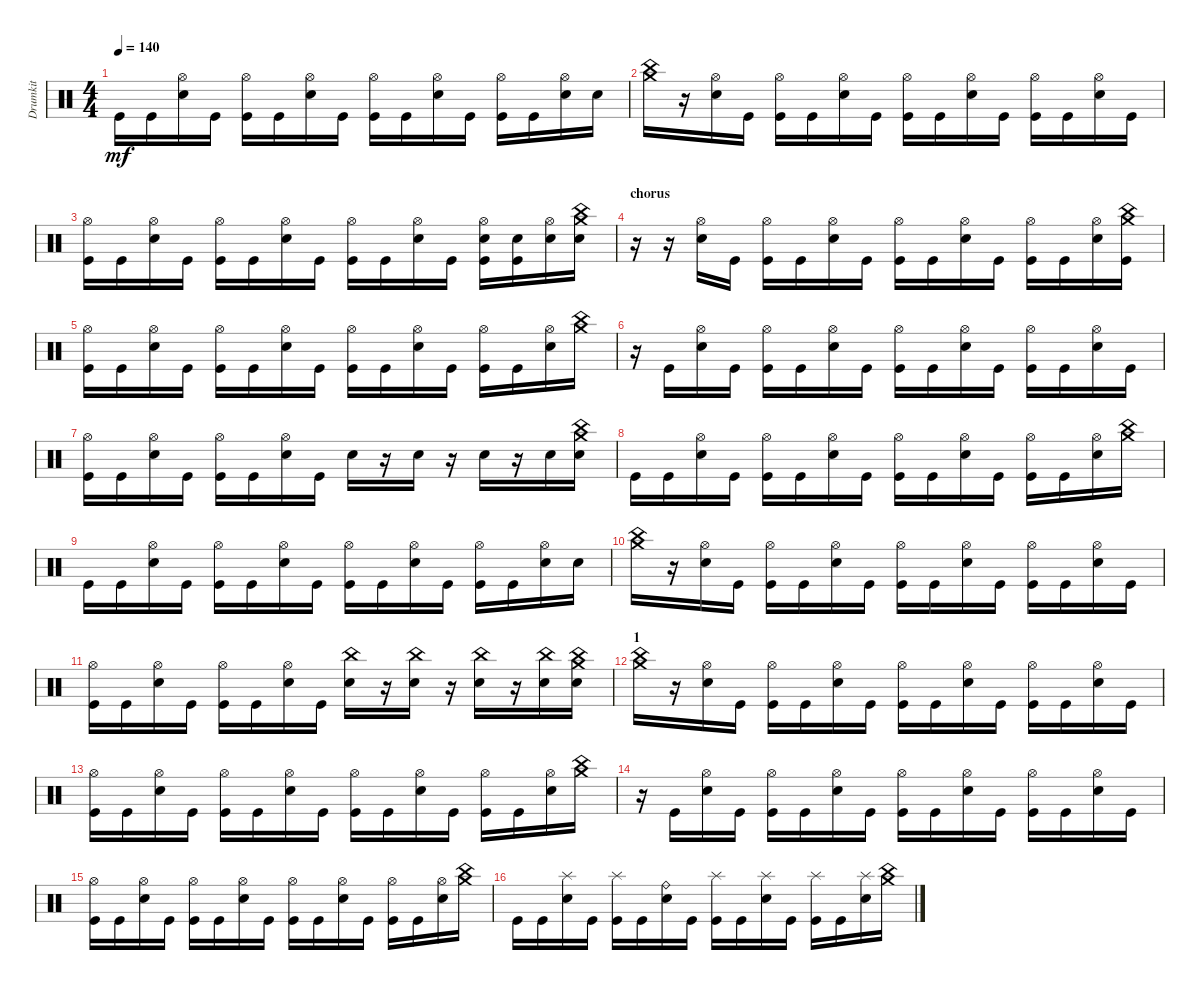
\track ("Drumkit" "Drumkit") {instrument percussion}
\staff {score}
\articulation defaults
\ts (4 4)
\tempo 140
\clef neutral
\ks c "Kick (hit)".16{dy mf} "Kick (hit)".16
("Snare (hit) 2" "Hi-Hat (open)").16 "Kick (hit)".16 ("Kick (hit)" "Hi-Hat (open)").16 "Kick (hit)".16 ("Snare (hit) 2" "Hi-Hat (open)").16 "Kick (hit)".16 ("Kick (hit)" "Hi-Hat (open)").16 "Kick (hit)".16 ("Snare (hit) 2" "Hi-Hat (open)").16 "Kick (hit)".16 ("Kick (hit)" "Hi-Hat (open)").16 "Kick (hit)".16 ("Snare (hit) 2" "Hi-Hat (open)").16 "Snare (hit) 2".16 |
("China (hit)" "Crash medium (hit)").16 r.16 ("Snare (hit) 2" "Hi-Hat (open)").16 "Kick (hit)".16 ("Kick (hit)" "Hi-Hat (open)").16 "Kick (hit)".16 ("Snare (hit) 2" "Hi-Hat (open)").16 "Kick (hit)".16 ("Kick (hit)" "Hi-Hat (open)").16 "Kick (hit)".16 ("Snare (hit) 2" "Hi-Hat (open)").16 "Kick (hit)".16 ("Kick (hit)" "Hi-Hat (open)").16 "Kick (hit)".16 ("Snare (hit) 2" "Hi-Hat (open)").16 "Kick (hit)".16 |
("Kick (hit)" "Hi-Hat (open)").16 "Kick (hit)".16 ("Snare (hit) 2" "Hi-Hat (open)").16 "Kick (hit)".16 ("Kick (hit)" "Hi-Hat (open)").16 "Kick (hit)".16 ("Snare (hit) 2" "Hi-Hat (open)").16 "Kick (hit)".16 ("Kick (hit)" "Hi-Hat (open)").16 "Kick (hit)".16 ("Snare (hit) 2" "Hi-Hat (open)").16 "Kick (hit)".16 ("Kick (hit)" "Hi-Hat (open)" "Snare (hit) 2").16 ("Kick (hit)" "Snare (hit) 2").16 ("Hi-Hat (open)" "Snare (hit) 2").16 ("China (hit)" "Crash medium (hit)" "Snare (hit) 2").16 |
\section ("" "chorus")
r.16 r.16 ("Snare (hit) 2" "Hi-Hat (open)").16 "Kick (hit)".16 ("Kick (hit)" "Hi-Hat (open)").16 "Kick (hit)".16 ("Snare (hit) 2" "Hi-Hat (open)").16 "Kick (hit)".16 ("Kick (hit)" "Hi-Hat (open)").16 "Kick (hit)".16 ("Snare (hit) 2" "Hi-Hat (open)").16 "Kick (hit)".16 ("Kick (hit)" "Hi-Hat (open)").16 "Kick (hit)".16 ("Snare (hit) 2" "Hi-Hat (open)").16 ("Kick (hit)" "China (hit)" "Crash medium (hit)").16 |
("Kick (hit)" "Hi-Hat (open)").16 "Kick (hit)".16 ("Snare (hit) 2" "Hi-Hat (open)").16 "Kick (hit)".16 ("Kick (hit)" "Hi-Hat (open)").16 "Kick (hit)".16 ("Snare (hit) 2" "Hi-Hat (open)").16 "Kick (hit)".16 ("Kick (hit)" "Hi-Hat (open)").16 "Kick (hit)".16 ("Snare (hit) 2" "Hi-Hat (open)").16 "Kick (hit)".16 ("Kick (hit)" "Hi-Hat (open)").16 "Kick (hit)".16 ("Snare (hit) 2" "Hi-Hat (open)").16 ("China (hit)" "Crash medium (hit)").16 |
r.16 "Kick (hit)".16 ("Snare (hit) 2" "Hi-Hat (open)").16 "Kick (hit)".16 ("Kick (hit)" "Hi-Hat (open)").16 "Kick (hit)".16 ("Snare (hit) 2" "Hi-Hat (open)").16 "Kick (hit)".16 ("Kick (hit)" "Hi-Hat (open)").16 "Kick (hit)".16 ("Snare (hit) 2" "Hi-Hat (open)").16 "Kick (hit)".16 ("Kick (hit)" "Hi-Hat (open)").16 "Kick (hit)".16 ("Snare (hit) 2" "Hi-Hat (open)").16 "Kick (hit)".16 |
("Kick (hit)" "Hi-Hat (open)").16 "Kick (hit)".16 ("Snare (hit) 2" "Hi-Hat (open)").16 "Kick (hit)".16 ("Kick (hit)" "Hi-Hat (open)").16 "Kick (hit)".16 ("Snare (hit) 2" "Hi-Hat (open)").16 "Kick (hit)".16 "Snare (hit) 2".16 r.16 "Snare (hit) 2".16 r.16 "Snare (hit) 2".16 r.16 "Snare (hit) 2".16 ("China (hit)" "Crash medium (hit)" "Snare (hit) 2").16 |
"Kick (hit)".16 "Kick (hit)".16 ("Snare (hit) 2" "Hi-Hat (open)").16 "Kick (hit)".16 ("Kick (hit)" "Hi-Hat (open)").16 "Kick (hit)".16 ("Snare (hit) 2" "Hi-Hat (open)").16 "Kick (hit)".16 ("Kick (hit)" "Hi-Hat (open)").16 "Kick (hit)".16 ("Snare (hit) 2" "Hi-Hat (open)").16 "Kick (hit)".16 ("Kick (hit)" "Hi-Hat (open)").16 "Kick (hit)".16 ("Snare (hit) 2" "Hi-Hat (open)").16 ("China (hit)" "Crash medium (hit)").16 |
"Kick (hit)".16 "Kick (hit)".16 ("Snare (hit) 2" "Hi-Hat (open)").16 "Kick (hit)".16 ("Kick (hit)" "Hi-Hat (open)").16 "Kick (hit)".16 ("Snare (hit) 2" "Hi-Hat (open)").16 "Kick (hit)".16 ("Kick (hit)" "Hi-Hat (open)").16 "Kick (hit)".16 ("Snare (hit) 2" "Hi-Hat (open)").16 "Kick (hit)".16 ("Kick (hit)" "Hi-Hat (open)").16 "Kick (hit)".16 ("Snare (hit) 2" "Hi-Hat (open)").16 "Snare (hit) 2".16 |
("China (hit)" "Crash medium (hit)").16 r.16 ("Snare (hit) 2" "Hi-Hat (open)").16 "Kick (hit)".16 ("Kick (hit)" "Hi-Hat (open)").16 "Kick (hit)".16 ("Snare (hit) 2" "Hi-Hat (open)").16 "Kick (hit)".16 ("Kick (hit)" "Hi-Hat (open)").16 "Kick (hit)".16 ("Snare (hit) 2" "Hi-Hat (open)").16 "Kick (hit)".16 ("Kick (hit)" "Hi-Hat (open)").16 "Kick (hit)".16 ("Snare (hit) 2" "Hi-Hat (open)").16 "Kick (hit)".16 |
("Kick (hit)" "Hi-Hat (open)").16 "Kick (hit)".16 ("Snare (hit) 2" "Hi-Hat (open)").16 "Kick (hit)".16 ("Kick (hit)" "Hi-Hat (open)").16 "Kick (hit)".16 ("Snare (hit) 2" "Hi-Hat (open)").16 "Kick (hit)".16 ("Snare (hit) 2" "China (hit)").16 r.16 ("Snare (hit) 2" "China (hit)").16 r.16 ("Snare (hit) 2" "China (hit)").16 r.16 ("Snare (hit) 2" "China (hit)").16 ("China (hit)" "Crash medium (hit)" "Snare (hit) 2").16 |
\section ("" "1")
("China (hit)" "Crash medium (hit)").16 r.16 ("Snare (hit) 2" "Hi-Hat (open)").16 "Kick (hit)".16 ("Kick (hit)" "Hi-Hat (open)").16 "Kick (hit)".16 ("Snare (hit) 2" "Hi-Hat (open)").16 "Kick (hit)".16 ("Kick (hit)" "Hi-Hat (open)").16 "Kick (hit)".16 ("Snare (hit) 2" "Hi-Hat (open)").16 "Kick (hit)".16 ("Kick (hit)" "Hi-Hat (open)").16 "Kick (hit)".16 ("Snare (hit) 2" "Hi-Hat (open)").16 "Kick (hit)".16 |
("Kick (hit)" "Hi-Hat (open)").16 "Kick (hit)".16 ("Snare (hit) 2" "Hi-Hat (open)").16 "Kick (hit)".16 ("Kick (hit)" "Hi-Hat (open)").16 "Kick (hit)".16 ("Snare (hit) 2" "Hi-Hat (open)").16 "Kick (hit)".16 ("Kick (hit)" "Hi-Hat (open)").16 "Kick (hit)".16 ("Snare (hit) 2" "Hi-Hat (open)").16 "Kick (hit)".16 ("Kick (hit)" "Hi-Hat (open)").16 "Kick (hit)".16 ("Snare (hit) 2" "Hi-Hat (open)").16 ("China (hit)" "Crash medium (hit)").16 |
r.16 "Kick (hit)".16 ("Snare (hit) 2" "Hi-Hat (open)").16 "Kick (hit)".16 ("Kick (hit)" "Hi-Hat (open)").16 "Kick (hit)".16 ("Snare (hit) 2" "Hi-Hat (open)").16 "Kick (hit)".16 ("Kick (hit)" "Hi-Hat (open)").16 "Kick (hit)".16 ("Snare (hit) 2" "Hi-Hat (open)").16 "Kick (hit)".16 ("Kick (hit)" "Hi-Hat (open)").16 "Kick (hit)".16 ("Snare (hit) 2" "Hi-Hat (open)").16 "Kick (hit)".16 |
("Kick (hit)" "Hi-Hat (open)").16 "Kick (hit)".16 ("Snare (hit) 2" "Hi-Hat (open)").16 "Kick (hit)".16 ("Kick (hit)" "Hi-Hat (open)").16 "Kick (hit)".16 ("Snare (hit) 2" "Hi-Hat (open)").16 "Kick (hit)".16 ("Kick (hit)" "Hi-Hat (open)").16 "Kick (hit)".16 ("Snare (hit) 2" "Hi-Hat (open)").16 "Kick (hit)".16 ("Kick (hit)" "Hi-Hat (open)").16 "Kick (hit)".16 ("Snare (hit) 2" "Hi-Hat (open)").16 ("China (hit)" "Crash medium (hit)").16 |
"Kick (hit)".16 "Kick (hit)".16 ("Snare (hit) 2" "Splash (hit)").16 "Kick (hit)".16 ("Kick (hit)" "Splash (hit)").16 "Kick (hit)".16 ("Snare (hit) 2" "Ride (bell)").16 "Kick (hit)".16 ("Kick (hit)" "Splash (hit)").16 "Kick (hit)".16 ("Snare (hit) 2" "Splash (hit)").16 "Kick (hit)".16 ("Kick (hit)" "Splash (hit)").16 "Kick (hit)".16 ("Snare (hit) 2" "Splash (hit)").16 ("China (hit)" "Crash medium (hit)").16
